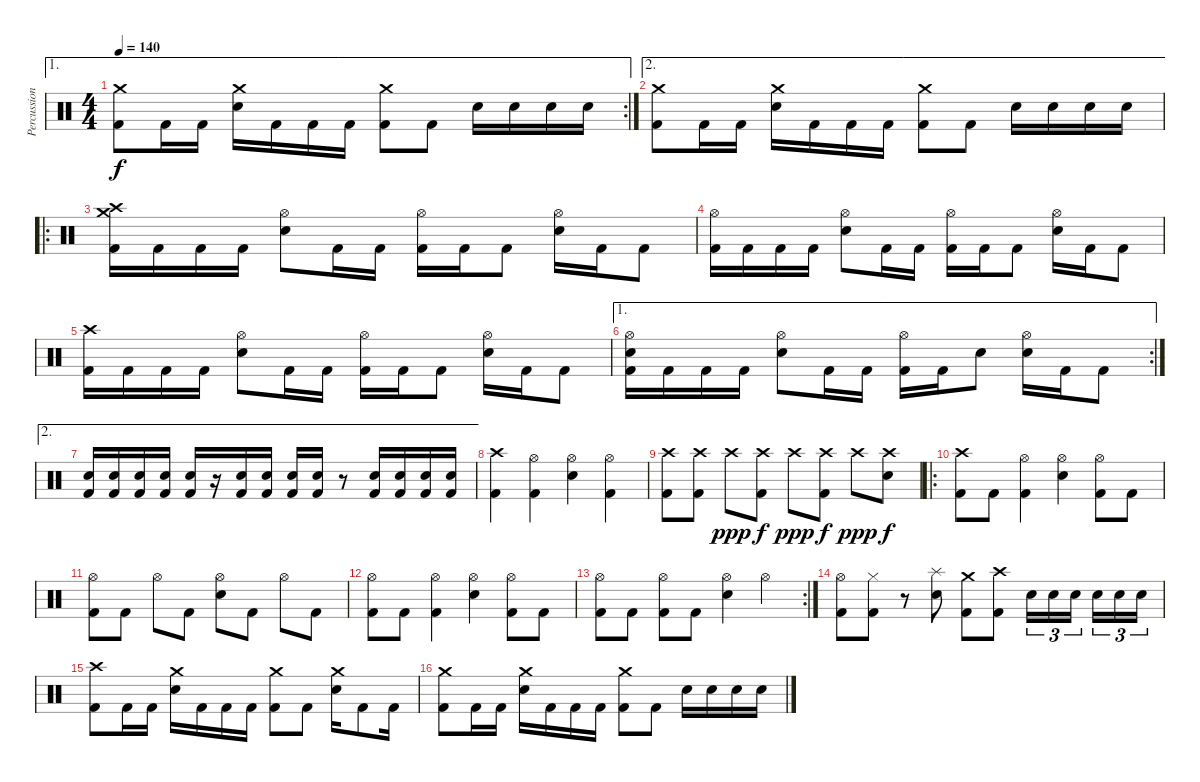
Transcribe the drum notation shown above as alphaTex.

\track ("Percussions" "Percussion") {instrument percussion}
\staff {score}
\articulation defaults
\ae 1
\rc 2
\ts (4 4)
\tempo 140
\clef neutral
\ks c
("Crash medium (hit)" "Kick (hit) 2").8{dy f} "Kick (hit) 2".16 "Kick (hit) 2".16 ("Crash medium (hit)" "Snare (hit) 2").16 "Kick (hit) 2".16 "Kick (hit) 2".16 "Kick (hit) 2".16 ("Crash medium (hit)" "Kick (hit) 2").8 "Kick (hit) 2".8 "Snare (hit) 2".16 "Snare (hit) 2".16 "Snare (hit) 2".16 "Snare (hit) 2".16 |
\ae 2
("Crash medium (hit)" "Kick (hit) 2").8 "Kick (hit) 2".16 "Kick (hit) 2".16 ("Crash medium (hit)" "Snare (hit) 2").16 "Kick (hit) 2".16 "Kick (hit) 2".16 "Kick (hit) 2".16 ("Crash medium (hit)" "Kick (hit) 2").8 "Kick (hit) 2".8 "Snare (hit) 2".16 "Snare (hit) 2".16 "Snare (hit) 2".16 "Snare (hit) 2".16 |
\ro
("Crash high (hit)" "Crash medium (hit)" "Kick (hit) 2").16 "Kick (hit) 2".16 "Kick (hit) 2".16 "Kick (hit) 2".16 ("Hi-Hat (open)" "Snare (hit) 2").8 "Kick (hit) 2".16 "Kick (hit) 2".16 ("Hi-Hat (open)" "Kick (hit) 2").16 "Kick (hit) 2".16 "Kick (hit) 2".8 ("Hi-Hat (open)" "Snare (hit) 2").16 "Kick (hit) 2".16 "Kick (hit) 2".8 |
("Hi-Hat (open)" "Kick (hit) 2").16 "Kick (hit) 2".16 "Kick (hit) 2".16 "Kick (hit) 2".16 ("Hi-Hat (open)" "Snare (hit) 2").8 "Kick (hit) 2".16 "Kick (hit) 2".16 ("Hi-Hat (open)" "Kick (hit) 2").16 "Kick (hit) 2".16 "Kick (hit) 2".8 ("Hi-Hat (open)" "Snare (hit) 2").16 "Kick (hit) 2".16 "Kick (hit) 2".8 |
("Crash high (hit)" "Kick (hit) 2").16 "Kick (hit) 2".16 "Kick (hit) 2".16 "Kick (hit) 2".16 ("Hi-Hat (open)" "Snare (hit) 2").8 "Kick (hit) 2".16 "Kick (hit) 2".16 ("Hi-Hat (open)" "Kick (hit) 2").16 "Kick (hit) 2".16 "Kick (hit) 2".8 ("Hi-Hat (open)" "Snare (hit) 2").16 "Kick (hit) 2".16 "Kick (hit) 2".8 |
\ae 1
\rc 2
("Hi-Hat (open)" "Snare (hit) 2" "Kick (hit) 2").16 "Kick (hit) 2".16 "Kick (hit) 2".16 "Kick (hit) 2".16 ("Hi-Hat (open)" "Snare (hit) 2").8 "Kick (hit) 2".16 "Kick (hit) 2".16 ("Hi-Hat (open)" "Kick (hit) 2").16 "Kick (hit) 2".16 "Snare (hit) 2".8 ("Hi-Hat (open)" "Snare (hit) 2").16 "Kick (hit) 2".16 "Kick (hit) 2".8 |
\ae 2
("Snare (hit) 2" "Kick (hit) 2").16 ("Snare (hit) 2" "Kick (hit) 2").16 ("Snare (hit) 2" "Kick (hit) 2").16 ("Snare (hit) 2" "Kick (hit) 2").16 ("Snare (hit) 2" "Kick (hit) 2").16 r.16 ("Snare (hit) 2" "Kick (hit) 2").16 ("Snare (hit) 2" "Kick (hit) 2").16 ("Snare (hit) 2" "Kick (hit) 2").16 ("Snare (hit) 2" "Kick (hit) 2").16 r.8 ("Snare (hit) 2" "Kick (hit) 2").16 ("Snare (hit) 2" "Kick (hit) 2").16 ("Snare (hit) 2" "Kick (hit) 2").16 ("Snare (hit) 2" "Kick (hit) 2").16 |
("Crash high (hit)" "Kick (hit) 2").4 ("Hi-Hat (open)" "Kick (hit) 2").4 ("Hi-Hat (open)" "Snare (hit) 2").4 ("Hi-Hat (open)" "Kick (hit) 2").4 |
("Crash high (hit)" "Kick (hit) 2").8 ("Crash high (hit)" "Kick (hit) 2").8 "Crash high (hit)".8{dy ppp} ("Crash high (hit)" "Kick (hit) 2").8{dy f} "Crash high (hit)".8{dy ppp} ("Crash high (hit)" "Kick (hit) 2").8{dy f} "Crash high (hit)".8{dy ppp} ("Crash high (hit)" "Snare (hit) 2").8{dy f} |
\ro
("Crash high (hit)" "Kick (hit) 2").8 "Kick (hit) 2".8 ("Hi-Hat (open)" "Kick (hit) 2").4 ("Hi-Hat (open)" "Snare (hit) 2").4 ("Hi-Hat (open)" "Kick (hit) 2").8 "Kick (hit) 2".8 |
("Hi-Hat (open)" "Kick (hit) 2").8 "Kick (hit) 2".8 "Hi-Hat (open)".8 "Kick (hit) 2".8 ("Hi-Hat (open)" "Snare (hit) 2").8 "Kick (hit) 2".8 "Hi-Hat (open)".8 "Kick (hit) 2".8 |
("Hi-Hat (open)" "Kick (hit) 2").8 "Kick (hit) 2".8 ("Hi-Hat (open)" "Kick (hit) 2").4 ("Hi-Hat (open)" "Snare (hit) 2").4 ("Hi-Hat (open)" "Kick (hit) 2").8 "Kick (hit) 2".8 |
\rc 2
("Hi-Hat (open)" "Kick (hit) 2").8 "Kick (hit) 2".8 ("Hi-Hat (open)" "Kick (hit) 2").8 "Kick (hit) 2".8 ("Hi-Hat (open)" "Snare (hit) 2").4 "Hi-Hat (open)".4 |
("Hi-Hat (open)" "Kick (hit) 2").8 ("Hi-Hat (closed)" "Kick (hit) 2").8 r.8 ("Splash (hit)" "Snare (hit) 2").8 ("Crash medium (hit)" "Kick (hit) 2").8 ("Crash high (hit)" "Kick (hit) 2").8 "Snare (hit) 2".16{tu (3 2)} "Snare (hit) 2".16{tu (3 2)} "Snare (hit) 2".16{tu (3 2)} "Snare (hit) 2".16{tu (3 2)} "Snare (hit) 2".16{tu (3 2)} "Snare (hit) 2".16{tu (3 2)} |
("Crash high (hit)" "Kick (hit) 2").8 "Kick (hit) 2".16 "Kick (hit) 2".16 ("Crash medium (hit)" "Snare (hit) 2").16 "Kick (hit) 2".16 "Kick (hit) 2".16 "Kick (hit) 2".16 ("Crash medium (hit)" "Kick (hit) 2").8 "Kick (hit) 2".8 ("Crash medium (hit)" "Snare (hit) 2").16 "Kick (hit) 2".8 "Kick (hit) 2".16 |
("Crash medium (hit)" "Kick (hit) 2").8 "Kick (hit) 2".16 "Kick (hit) 2".16 ("Crash medium (hit)" "Snare (hit) 2").16 "Kick (hit) 2".16 "Kick (hit) 2".16 "Kick (hit) 2".16 ("Crash medium (hit)" "Kick (hit) 2").8 "Kick (hit) 2".8 "Snare (hit) 2".16 "Snare (hit) 2".16 "Snare (hit) 2".16 "Snare (hit) 2".16
